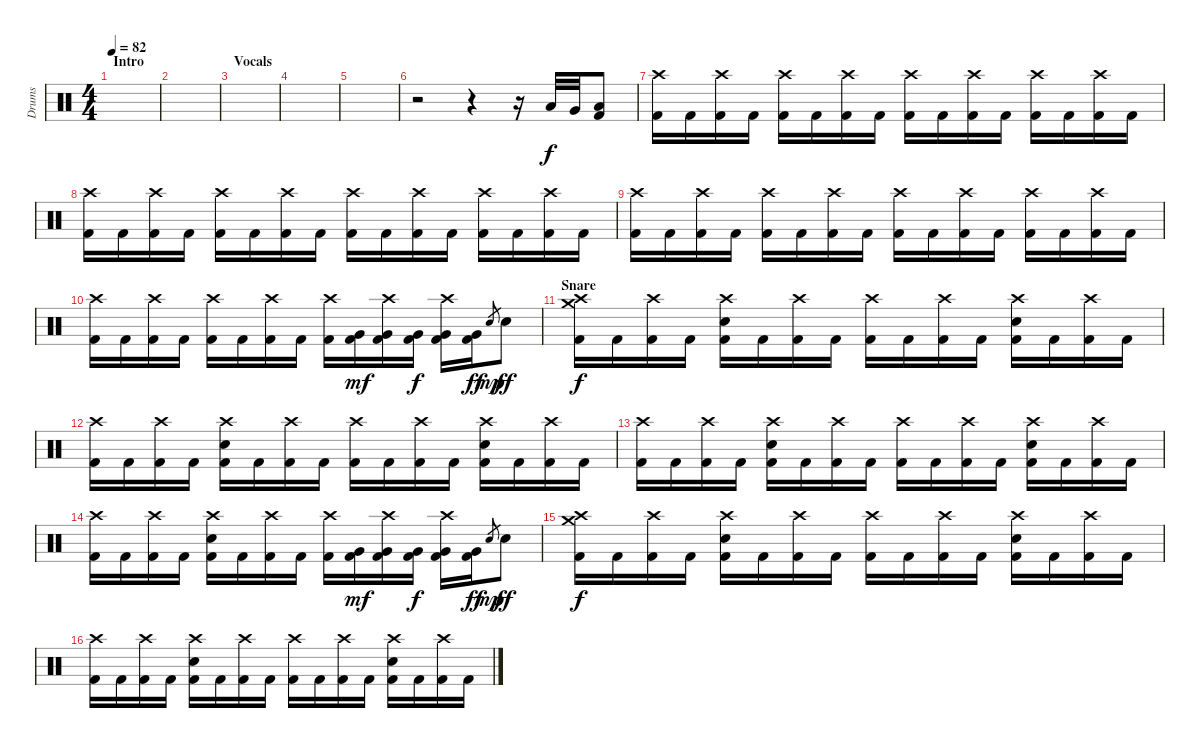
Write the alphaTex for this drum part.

\track ("Drums" "Drums") {instrument percussion}
\staff {score}
\articulation defaults
\ts (4 4)
\section ("" "Intro")
\tempo 82
\clef neutral
\ks c
|
|
\section ("" "Vocals")
|
|
|
r.2 r.4 r.16 "Low Tom (hit)".32 "Very Low Tom (hit)".32 ("Low Floor Tom (hit)" "Kick (hit) 2").8 |
\section ("" "")
("Crash high (hit)" "Kick (hit) 2").16 "Kick (hit) 2".16 ("Crash high (hit)" "Kick (hit) 2").16 "Kick (hit) 2".16 ("Crash high (hit)" "Kick (hit) 2").16 "Kick (hit) 2".16 ("Crash high (hit)" "Kick (hit) 2").16 "Kick (hit) 2".16 ("Crash high (hit)" "Kick (hit) 2").16 "Kick (hit) 2".16 ("Crash high (hit)" "Kick (hit) 2").16 "Kick (hit) 2".16 ("Crash high (hit)" "Kick (hit) 2").16 "Kick (hit) 2".16 ("Crash high (hit)" "Kick (hit) 2").16 "Kick (hit) 2".16 |
("Crash high (hit)" "Kick (hit) 2").16 "Kick (hit) 2".16 ("Crash high (hit)" "Kick (hit) 2").16 "Kick (hit) 2".16 ("Crash high (hit)" "Kick (hit) 2").16 "Kick (hit) 2".16 ("Crash high (hit)" "Kick (hit) 2").16 "Kick (hit) 2".16 ("Crash high (hit)" "Kick (hit) 2").16 "Kick (hit) 2".16 ("Crash high (hit)" "Kick (hit) 2").16 "Kick (hit) 2".16 ("Crash high (hit)" "Kick (hit) 2").16 "Kick (hit) 2".16 ("Crash high (hit)" "Kick (hit) 2").16 "Kick (hit) 2".16 |
("Crash high (hit)" "Kick (hit) 2").16 "Kick (hit) 2".16 ("Crash high (hit)" "Kick (hit) 2").16 "Kick (hit) 2".16 ("Crash high (hit)" "Kick (hit) 2").16 "Kick (hit) 2".16 ("Crash high (hit)" "Kick (hit) 2").16 "Kick (hit) 2".16 ("Crash high (hit)" "Kick (hit) 2").16 "Kick (hit) 2".16 ("Crash high (hit)" "Kick (hit) 2").16 "Kick (hit) 2".16 ("Crash high (hit)" "Kick (hit) 2").16 "Kick (hit) 2".16 ("Crash high (hit)" "Kick (hit) 2").16 "Kick (hit) 2".16 |
("Crash high (hit)" "Kick (hit) 2").16 "Kick (hit) 2".16 ("Crash high (hit)" "Kick (hit) 2").16 "Kick (hit) 2".16 ("Crash high (hit)" "Kick (hit) 2").16 "Kick (hit) 2".16 ("Crash high (hit)" "Kick (hit) 2").16 "Kick (hit) 2".16 ("Crash high (hit)" "Kick (hit) 2").16 ("Very Low Tom (hit)" "Kick (hit) 2").16{dy mf} ("Crash high (hit)" "Very Low Tom (hit)" "Kick (hit) 2").16 ("Very Low Tom (hit)" "Kick (hit) 2").16{dy f} ("Crash high (hit)" "Very Low Tom (hit)" "Kick (hit) 2").16 ("Very Low Tom (hit)" "Kick (hit) 2").16{dy ff} "Electric Snare (hit)".8{gr dy mp} "Electric Snare (hit)".8{dy ff} |
\section ("" "Snare")
("Crash high (hit)" "Crash medium (hit)" "Kick (hit) 2").16{dy f} "Kick (hit) 2".16 ("Crash high (hit)" "Kick (hit) 2").16 "Kick (hit) 2".16 ("Crash high (hit)" "Electric Snare (hit)" "Kick (hit) 2").16 "Kick (hit) 2".16 ("Crash high (hit)" "Kick (hit) 2").16 "Kick (hit) 2".16 ("Crash high (hit)" "Kick (hit) 2").16 "Kick (hit) 2".16 ("Crash high (hit)" "Kick (hit) 2").16 "Kick (hit) 2".16 ("Crash high (hit)" "Electric Snare (hit)" "Kick (hit) 2").16 "Kick (hit) 2".16 ("Crash high (hit)" "Kick (hit) 2").16 "Kick (hit) 2".16 |
("Crash high (hit)" "Kick (hit) 2").16 "Kick (hit) 2".16 ("Crash high (hit)" "Kick (hit) 2").16 "Kick (hit) 2".16 ("Crash high (hit)" "Electric Snare (hit)" "Kick (hit) 2").16 "Kick (hit) 2".16 ("Crash high (hit)" "Kick (hit) 2").16 "Kick (hit) 2".16 ("Crash high (hit)" "Kick (hit) 2").16 "Kick (hit) 2".16 ("Crash high (hit)" "Kick (hit) 2").16 "Kick (hit) 2".16 ("Crash high (hit)" "Electric Snare (hit)" "Kick (hit) 2").16 "Kick (hit) 2".16 ("Crash high (hit)" "Kick (hit) 2").16 "Kick (hit) 2".16 |
("Crash high (hit)" "Kick (hit) 2").16 "Kick (hit) 2".16 ("Crash high (hit)" "Kick (hit) 2").16 "Kick (hit) 2".16 ("Crash high (hit)" "Electric Snare (hit)" "Kick (hit) 2").16 "Kick (hit) 2".16 ("Crash high (hit)" "Kick (hit) 2").16 "Kick (hit) 2".16 ("Crash high (hit)" "Kick (hit) 2").16 "Kick (hit) 2".16 ("Crash high (hit)" "Kick (hit) 2").16 "Kick (hit) 2".16 ("Crash high (hit)" "Electric Snare (hit)" "Kick (hit) 2").16 "Kick (hit) 2".16 ("Crash high (hit)" "Kick (hit) 2").16 "Kick (hit) 2".16 |
("Crash high (hit)" "Kick (hit) 2").16 "Kick (hit) 2".16 ("Crash high (hit)" "Kick (hit) 2").16 "Kick (hit) 2".16 ("Crash high (hit)" "Electric Snare (hit)" "Kick (hit) 2").16 "Kick (hit) 2".16 ("Crash high (hit)" "Kick (hit) 2").16 "Kick (hit) 2".16 ("Crash high (hit)" "Kick (hit) 2").16 ("Very Low Tom (hit)" "Kick (hit) 2").16{dy mf} ("Crash high (hit)" "Very Low Tom (hit)" "Kick (hit) 2").16 ("Very Low Tom (hit)" "Kick (hit) 2").16{dy f} ("Crash high (hit)" "Very Low Tom (hit)" "Kick (hit) 2").16 ("Very Low Tom (hit)" "Kick (hit) 2").16{dy ff} "Electric Snare (hit)".8{gr dy mp} "Electric Snare (hit)".8{dy ff} |
("Crash high (hit)" "Crash medium (hit)" "Kick (hit) 2").16{dy f} "Kick (hit) 2".16 ("Crash high (hit)" "Kick (hit) 2").16 "Kick (hit) 2".16 ("Crash high (hit)" "Electric Snare (hit)" "Kick (hit) 2").16 "Kick (hit) 2".16 ("Crash high (hit)" "Kick (hit) 2").16 "Kick (hit) 2".16 ("Crash high (hit)" "Kick (hit) 2").16 "Kick (hit) 2".16 ("Crash high (hit)" "Kick (hit) 2").16 "Kick (hit) 2".16 ("Crash high (hit)" "Electric Snare (hit)" "Kick (hit) 2").16 "Kick (hit) 2".16 ("Crash high (hit)" "Kick (hit) 2").16 "Kick (hit) 2".16 |
("Crash high (hit)" "Kick (hit) 2").16 "Kick (hit) 2".16 ("Crash high (hit)" "Kick (hit) 2").16 "Kick (hit) 2".16 ("Crash high (hit)" "Electric Snare (hit)" "Kick (hit) 2").16 "Kick (hit) 2".16 ("Crash high (hit)" "Kick (hit) 2").16 "Kick (hit) 2".16 ("Crash high (hit)" "Kick (hit) 2").16 "Kick (hit) 2".16 ("Crash high (hit)" "Kick (hit) 2").16 "Kick (hit) 2".16 ("Crash high (hit)" "Electric Snare (hit)" "Kick (hit) 2").16 "Kick (hit) 2".16 ("Crash high (hit)" "Kick (hit) 2").16 "Kick (hit) 2".16
